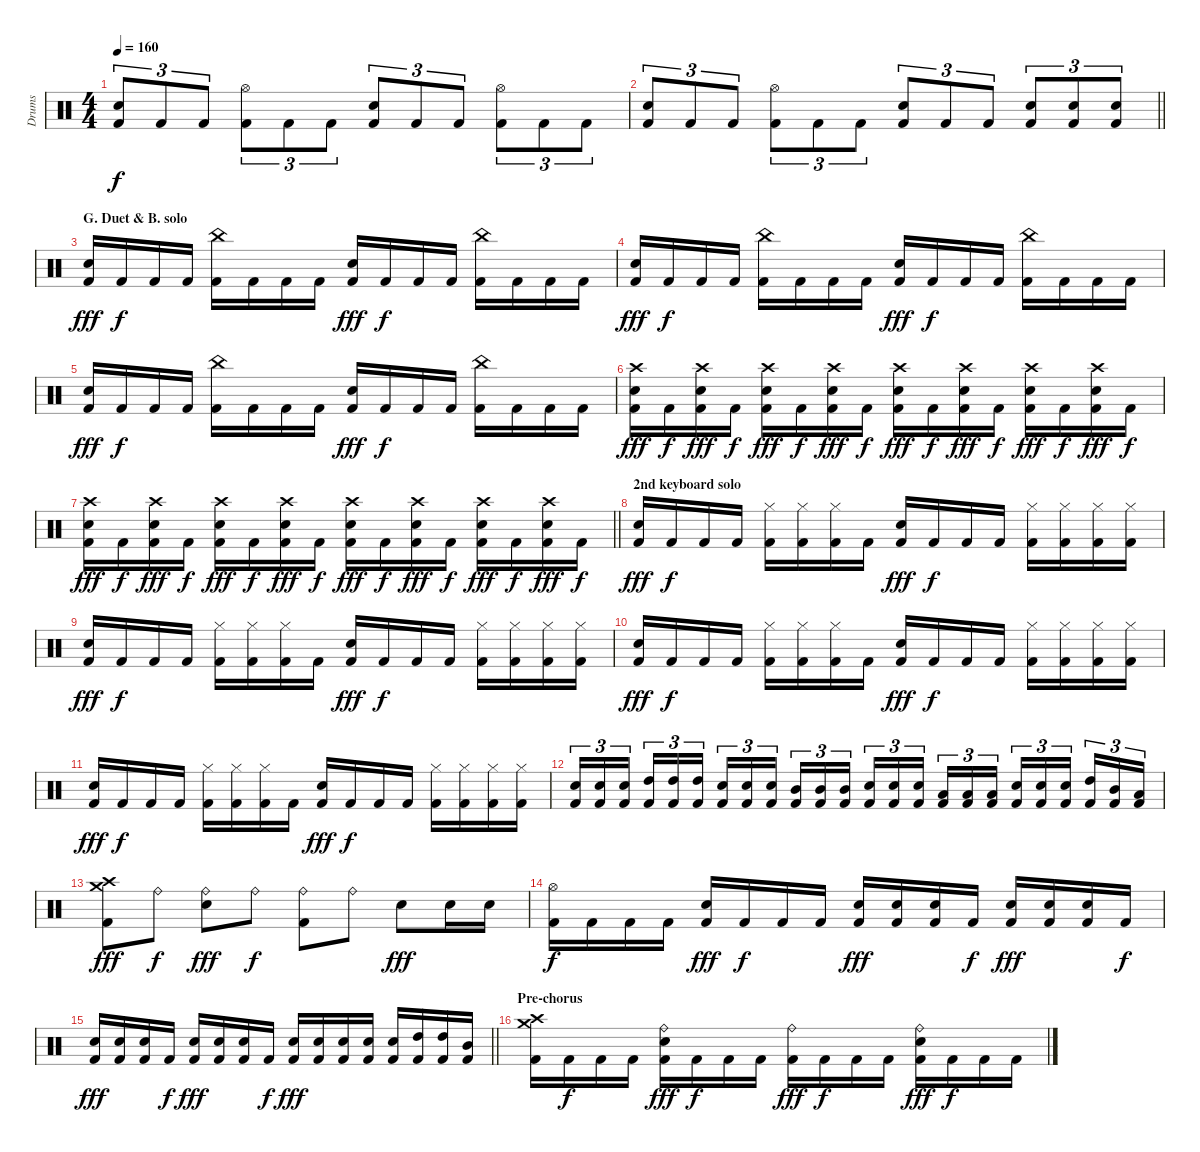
\track ("Drums" "Drums") {instrument percussion}
\staff {score}
\articulation defaults
\ts (4 4)
\tempo 160
\clef neutral
\ks c
("Electric Snare (hit)" "Kick (hit) 2").8{tu (3 2) dy f} "Kick (hit) 2".8{tu (3 2)} "Kick (hit) 2".8{tu (3 2)} ("Hi-Hat (open)" "Kick (hit) 2").8{tu (3 2)} "Kick (hit) 2".8{tu (3 2)} "Kick (hit) 2".8{tu (3 2)} ("Electric Snare (hit)" "Kick (hit) 2").8{tu (3 2)} "Kick (hit) 2".8{tu (3 2)} "Kick (hit) 2".8{tu (3 2)} ("Hi-Hat (open)" "Kick (hit) 2").8{tu (3 2)} "Kick (hit) 2".8{tu (3 2)} "Kick (hit) 2".8{tu (3 2)} |
\barLineRight lightlight
("Electric Snare (hit)" "Kick (hit) 2").8{tu (3 2)} "Kick (hit) 2".8{tu (3 2)} "Kick (hit) 2".8{tu (3 2)} ("Hi-Hat (open)" "Kick (hit) 2").8{tu (3 2)} "Kick (hit) 2".8{tu (3 2)} "Kick (hit) 2".8{tu (3 2)} ("Electric Snare (hit)" "Kick (hit) 2").8{tu (3 2)} "Kick (hit) 2".8{tu (3 2)} "Kick (hit) 2".8{tu (3 2)} ("Electric Snare (hit)" "Kick (hit) 2").8{tu (3 2)} ("Electric Snare (hit)" "Kick (hit) 2").8{tu (3 2)} ("Electric Snare (hit)" "Kick (hit) 2").8{tu (3 2)} |
\section ("" "G. Duet & B. solo")
("Electric Snare (hit)" "Kick (hit) 2").16{dy fff} "Kick (hit) 2".16{dy f} "Kick (hit) 2".16 "Kick (hit) 2".16 ("China (hit)" "Kick (hit) 2").16 "Kick (hit) 2".16 "Kick (hit) 2".16 "Kick (hit) 2".16 ("Electric Snare (hit)" "Kick (hit) 2").16{dy fff} "Kick (hit) 2".16{dy f} "Kick (hit) 2".16 "Kick (hit) 2".16 ("China (hit)" "Kick (hit) 2").16 "Kick (hit) 2".16 "Kick (hit) 2".16 "Kick (hit) 2".16 |
("Electric Snare (hit)" "Kick (hit) 2").16{dy fff} "Kick (hit) 2".16{dy f} "Kick (hit) 2".16 "Kick (hit) 2".16 ("China (hit)" "Kick (hit) 2").16 "Kick (hit) 2".16 "Kick (hit) 2".16 "Kick (hit) 2".16 ("Electric Snare (hit)" "Kick (hit) 2").16{dy fff} "Kick (hit) 2".16{dy f} "Kick (hit) 2".16 "Kick (hit) 2".16 ("China (hit)" "Kick (hit) 2").16 "Kick (hit) 2".16 "Kick (hit) 2".16 "Kick (hit) 2".16 |
("Electric Snare (hit)" "Kick (hit) 2").16{dy fff} "Kick (hit) 2".16{dy f} "Kick (hit) 2".16 "Kick (hit) 2".16 ("China (hit)" "Kick (hit) 2").16 "Kick (hit) 2".16 "Kick (hit) 2".16 "Kick (hit) 2".16 ("Electric Snare (hit)" "Kick (hit) 2").16{dy fff} "Kick (hit) 2".16{dy f} "Kick (hit) 2".16 "Kick (hit) 2".16 ("China (hit)" "Kick (hit) 2").16 "Kick (hit) 2".16 "Kick (hit) 2".16 "Kick (hit) 2".16 |
("Crash high (hit)" "Electric Snare (hit)" "Kick (hit) 2").16{dy fff} "Kick (hit) 2".16{dy f} ("Crash high (hit)" "Electric Snare (hit)" "Kick (hit) 2").16{dy fff} "Kick (hit) 2".16{dy f} ("Crash high (hit)" "Electric Snare (hit)" "Kick (hit) 2").16{dy fff} "Kick (hit) 2".16{dy f} ("Crash high (hit)" "Electric Snare (hit)" "Kick (hit) 2").16{dy fff} "Kick (hit) 2".16{dy f} ("Crash high (hit)" "Electric Snare (hit)" "Kick (hit) 2").16{dy fff} "Kick (hit) 2".16{dy f} ("Crash high (hit)" "Electric Snare (hit)" "Kick (hit) 2").16{dy fff} "Kick (hit) 2".16{dy f} ("Crash high (hit)" "Electric Snare (hit)" "Kick (hit) 2").16{dy fff} "Kick (hit) 2".16{dy f} ("Crash high (hit)" "Electric Snare (hit)" "Kick (hit) 2").16{dy fff} "Kick (hit) 2".16{dy f} |
\barLineRight lightlight
("Crash high (hit)" "Electric Snare (hit)" "Kick (hit) 2").16{dy fff} "Kick (hit) 2".16{dy f} ("Crash high (hit)" "Electric Snare (hit)" "Kick (hit) 2").16{dy fff} "Kick (hit) 2".16{dy f} ("Crash high (hit)" "Electric Snare (hit)" "Kick (hit) 2").16{dy fff} "Kick (hit) 2".16{dy f} ("Crash high (hit)" "Electric Snare (hit)" "Kick (hit) 2").16{dy fff} "Kick (hit) 2".16{dy f} ("Crash high (hit)" "Electric Snare (hit)" "Kick (hit) 2").16{dy fff} "Kick (hit) 2".16{dy f} ("Crash high (hit)" "Electric Snare (hit)" "Kick (hit) 2").16{dy fff} "Kick (hit) 2".16{dy f} ("Crash high (hit)" "Electric Snare (hit)" "Kick (hit) 2").16{dy fff} "Kick (hit) 2".16{dy f} ("Crash high (hit)" "Electric Snare (hit)" "Kick (hit) 2").16{dy fff} "Kick (hit) 2".16{dy f} |
\section ("" "2nd keyboard solo")
("Electric Snare (hit)" "Kick (hit) 2").16{dy fff} "Kick (hit) 2".16{dy f} "Kick (hit) 2".16 "Kick (hit) 2".16 ("Hi-Hat (closed)" "Kick (hit) 2").16 ("Hi-Hat (closed)" "Kick (hit) 2").16 ("Hi-Hat (closed)" "Kick (hit) 2").16 "Kick (hit) 2".16 ("Electric Snare (hit)" "Kick (hit) 2").16{dy fff} "Kick (hit) 2".16{dy f} "Kick (hit) 2".16 "Kick (hit) 2".16 ("Hi-Hat (closed)" "Kick (hit) 2").16 ("Hi-Hat (closed)" "Kick (hit) 2").16 ("Hi-Hat (closed)" "Kick (hit) 2").16 ("Hi-Hat (closed)" "Kick (hit) 2").16 |
("Electric Snare (hit)" "Kick (hit) 2").16{dy fff} "Kick (hit) 2".16{dy f} "Kick (hit) 2".16 "Kick (hit) 2".16 ("Hi-Hat (closed)" "Kick (hit) 2").16 ("Hi-Hat (closed)" "Kick (hit) 2").16 ("Hi-Hat (closed)" "Kick (hit) 2").16 "Kick (hit) 2".16 ("Electric Snare (hit)" "Kick (hit) 2").16{dy fff} "Kick (hit) 2".16{dy f} "Kick (hit) 2".16 "Kick (hit) 2".16 ("Hi-Hat (closed)" "Kick (hit) 2").16 ("Hi-Hat (closed)" "Kick (hit) 2").16 ("Hi-Hat (closed)" "Kick (hit) 2").16 ("Hi-Hat (closed)" "Kick (hit) 2").16 |
("Electric Snare (hit)" "Kick (hit) 2").16{dy fff} "Kick (hit) 2".16{dy f} "Kick (hit) 2".16 "Kick (hit) 2".16 ("Hi-Hat (closed)" "Kick (hit) 2").16 ("Hi-Hat (closed)" "Kick (hit) 2").16 ("Hi-Hat (closed)" "Kick (hit) 2").16 "Kick (hit) 2".16 ("Electric Snare (hit)" "Kick (hit) 2").16{dy fff} "Kick (hit) 2".16{dy f} "Kick (hit) 2".16 "Kick (hit) 2".16 ("Hi-Hat (closed)" "Kick (hit) 2").16 ("Hi-Hat (closed)" "Kick (hit) 2").16 ("Hi-Hat (closed)" "Kick (hit) 2").16 ("Hi-Hat (closed)" "Kick (hit) 2").16 |
("Electric Snare (hit)" "Kick (hit) 2").16{dy fff} "Kick (hit) 2".16{dy f} "Kick (hit) 2".16 "Kick (hit) 2".16 ("Hi-Hat (closed)" "Kick (hit) 2").16 ("Hi-Hat (closed)" "Kick (hit) 2").16 ("Hi-Hat (closed)" "Kick (hit) 2").16 "Kick (hit) 2".16 ("Electric Snare (hit)" "Kick (hit) 2").16{dy fff} "Kick (hit) 2".16{dy f} "Kick (hit) 2".16 "Kick (hit) 2".16 ("Hi-Hat (closed)" "Kick (hit) 2").16 ("Hi-Hat (closed)" "Kick (hit) 2").16 ("Hi-Hat (closed)" "Kick (hit) 2").16 ("Hi-Hat (closed)" "Kick (hit) 2").16 |
("Electric Snare (hit)" "Kick (hit) 2").16{tu (3 2)} ("Electric Snare (hit)" "Kick (hit) 2").16{tu (3 2)} ("Electric Snare (hit)" "Kick (hit) 2").16{tu (3 2)} ("High Tom (hit)" "Kick (hit) 2").16{tu (3 2)} ("High Tom (hit)" "Kick (hit) 2").16{tu (3 2)} ("High Tom (hit)" "Kick (hit) 2").16{tu (3 2)} ("Electric Snare (hit)" "Kick (hit) 2").16{tu (3 2)} ("Electric Snare (hit)" "Kick (hit) 2").16{tu (3 2)} ("Electric Snare (hit)" "Kick (hit) 2").16{tu (3 2)} ("Mid Tom (hit)" "Kick (hit) 2").16{tu (3 2)} ("Mid Tom (hit)" "Kick (hit) 2").16{tu (3 2)} ("Mid Tom (hit)" "Kick (hit) 2").16{tu (3 2)} ("Electric Snare (hit)" "Kick (hit) 2").16{tu (3 2)} ("Electric Snare (hit)" "Kick (hit) 2").16{tu (3 2)} ("Electric Snare (hit)" "Kick (hit) 2").16{tu (3 2)} ("Low Tom (hit)" "Kick (hit) 2").16{tu (3 2)} ("Low Tom (hit)" "Kick (hit) 2").16{tu (3 2)} ("Low Tom (hit)" "Kick (hit) 2").16{tu (3 2)} ("Electric Snare (hit)" "Kick (hit) 2").16{tu (3 2)} ("Electric Snare (hit)" "Kick (hit) 2").16{tu (3 2)} ("Electric Snare (hit)" "Kick (hit) 2").16{tu (3 2)} ("High Tom (hit)" "Kick (hit) 2").16{tu (3 2)} ("Mid Tom (hit)" "Kick (hit) 2").16{tu (3 2)} ("Low Tom (hit)" "Kick (hit) 2").16{tu (3 2)} |
("Crash high (hit)" "Crash medium (hit)" "Kick (hit) 2").8{dy fff} "Ride (bell)".8{dy f} ("Ride (bell)" "Electric Snare (hit)").8{dy fff} "Ride (bell)".8{dy f} ("Ride (bell)" "Kick (hit) 2").8 "Ride (bell)".8 "Electric Snare (hit)".8{dy fff} "Electric Snare (hit)".16 "Electric Snare (hit)".16 |
("Hi-Hat (open)" "Kick (hit) 2").16{dy f} "Kick (hit) 2".16 "Kick (hit) 2".16 "Kick (hit) 2".16 ("Electric Snare (hit)" "Kick (hit) 2").16{dy fff} "Kick (hit) 2".16{dy f} "Kick (hit) 2".16 "Kick (hit) 2".16 ("Electric Snare (hit)" "Kick (hit) 2").16{dy fff} ("Electric Snare (hit)" "Kick (hit) 2").16 ("Electric Snare (hit)" "Kick (hit) 2").16 "Kick (hit) 2".16{dy f} ("Electric Snare (hit)" "Kick (hit) 2").16{dy fff} ("Electric Snare (hit)" "Kick (hit) 2").16 ("Electric Snare (hit)" "Kick (hit) 2").16 "Kick (hit) 2".16{dy f} |
\barLineRight lightlight
("Electric Snare (hit)" "Kick (hit) 2").16{dy fff} ("Electric Snare (hit)" "Kick (hit) 2").16 ("Electric Snare (hit)" "Kick (hit) 2").16 "Kick (hit) 2".16{dy f} ("Electric Snare (hit)" "Kick (hit) 2").16{dy fff} ("Electric Snare (hit)" "Kick (hit) 2").16 ("Electric Snare (hit)" "Kick (hit) 2").16 "Kick (hit) 2".16{dy f} ("Electric Snare (hit)" "Kick (hit) 2").16{dy fff} ("Electric Snare (hit)" "Kick (hit) 2").16 ("Electric Snare (hit)" "Kick (hit) 2").16 ("Electric Snare (hit)" "Kick (hit) 2").16 ("Electric Snare (hit)" "Kick (hit) 2").16 ("High Tom (hit)" "Kick (hit) 2").16 ("High Tom (hit)" "Kick (hit) 2").16 ("Mid Tom (hit)" "Kick (hit) 2").16 |
\section ("" "Pre-chorus")
("Crash high (hit)" "Crash medium (hit)" "Kick (hit) 2").16 "Kick (hit) 2".16{dy f} "Kick (hit) 2".16 "Kick (hit) 2".16 ("Ride (bell)" "Electric Snare (hit)" "Kick (hit) 2").16{dy fff} "Kick (hit) 2".16{dy f} "Kick (hit) 2".16 "Kick (hit) 2".16 ("Ride (bell)" "Kick (hit) 2").16{dy fff} "Kick (hit) 2".16{dy f} "Kick (hit) 2".16 "Kick (hit) 2".16 ("Ride (bell)" "Electric Snare (hit)" "Kick (hit) 2").16{dy fff} "Kick (hit) 2".16{dy f} "Kick (hit) 2".16 "Kick (hit) 2".16
